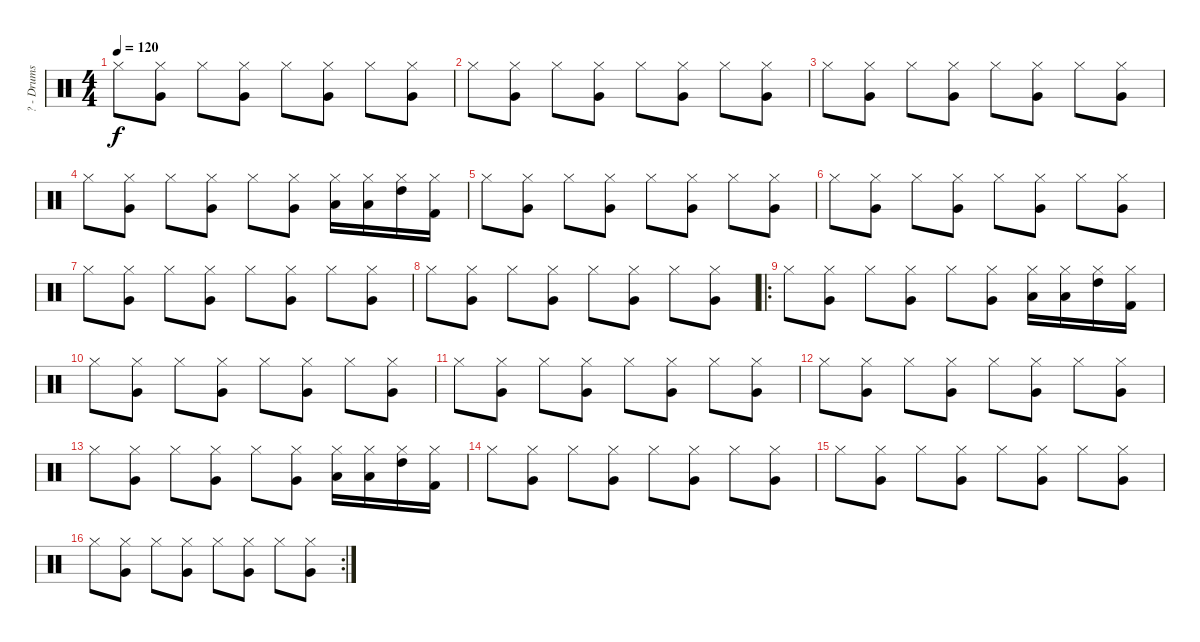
\track ("? - Drums" "? - Drums") {instrument percussion}
\staff {score}
\articulation defaults
\ts (4 4)
\tempo 120
\clef neutral
\ks c "Hi-Hat (closed)".8{dy f}
("Hi-Hat (closed)" "Very Low Tom (hit)").8 "Hi-Hat (closed)".8 ("Hi-Hat (closed)" "Very Low Tom (hit)").8 "Hi-Hat (closed)".8 ("Hi-Hat (closed)" "Very Low Tom (hit)").8 "Hi-Hat (closed)".8 ("Hi-Hat (closed)" "Very Low Tom (hit)").8 |
"Hi-Hat (closed)".8 ("Hi-Hat (closed)" "Very Low Tom (hit)").8 "Hi-Hat (closed)".8 ("Hi-Hat (closed)" "Very Low Tom (hit)").8 "Hi-Hat (closed)".8 ("Hi-Hat (closed)" "Very Low Tom (hit)").8 "Hi-Hat (closed)".8 ("Hi-Hat (closed)" "Very Low Tom (hit)").8 |
"Hi-Hat (closed)".8 ("Hi-Hat (closed)" "Very Low Tom (hit)").8 "Hi-Hat (closed)".8 ("Hi-Hat (closed)" "Very Low Tom (hit)").8 "Hi-Hat (closed)".8 ("Hi-Hat (closed)" "Very Low Tom (hit)").8 "Hi-Hat (closed)".8 ("Hi-Hat (closed)" "Very Low Tom (hit)").8 |
"Hi-Hat (closed)".8 ("Hi-Hat (closed)" "Very Low Tom (hit)").8 "Hi-Hat (closed)".8 ("Hi-Hat (closed)" "Very Low Tom (hit)").8 "Hi-Hat (closed)".8 ("Hi-Hat (closed)" "Very Low Tom (hit)").8 ("Hi-Hat (closed)" "Low Tom (hit)").16 ("Hi-Hat (closed)" "Low Tom (hit)").16 ("Hi-Hat (closed)" "High Tom (hit)").16 ("Hi-Hat (closed)" "Kick (hit) 2").16 |
"Hi-Hat (closed)".8 ("Hi-Hat (closed)" "Very Low Tom (hit)").8 "Hi-Hat (closed)".8 ("Hi-Hat (closed)" "Very Low Tom (hit)").8 "Hi-Hat (closed)".8 ("Hi-Hat (closed)" "Very Low Tom (hit)").8 "Hi-Hat (closed)".8 ("Hi-Hat (closed)" "Very Low Tom (hit)").8 |
"Hi-Hat (closed)".8 ("Hi-Hat (closed)" "Very Low Tom (hit)").8 "Hi-Hat (closed)".8 ("Hi-Hat (closed)" "Very Low Tom (hit)").8 "Hi-Hat (closed)".8 ("Hi-Hat (closed)" "Very Low Tom (hit)").8 "Hi-Hat (closed)".8 ("Hi-Hat (closed)" "Very Low Tom (hit)").8 |
"Hi-Hat (closed)".8 ("Hi-Hat (closed)" "Very Low Tom (hit)").8 "Hi-Hat (closed)".8 ("Hi-Hat (closed)" "Very Low Tom (hit)").8 "Hi-Hat (closed)".8 ("Hi-Hat (closed)" "Very Low Tom (hit)").8 "Hi-Hat (closed)".8 ("Hi-Hat (closed)" "Very Low Tom (hit)").8 |
"Hi-Hat (closed)".8 ("Hi-Hat (closed)" "Very Low Tom (hit)").8 "Hi-Hat (closed)".8 ("Hi-Hat (closed)" "Very Low Tom (hit)").8 "Hi-Hat (closed)".8 ("Hi-Hat (closed)" "Very Low Tom (hit)").8 "Hi-Hat (closed)".8 ("Hi-Hat (closed)" "Very Low Tom (hit)").8 |
\ro "Hi-Hat (closed)".8
("Hi-Hat (closed)" "Very Low Tom (hit)").8 "Hi-Hat (closed)".8 ("Hi-Hat (closed)" "Very Low Tom (hit)").8 "Hi-Hat (closed)".8 ("Hi-Hat (closed)" "Very Low Tom (hit)").8 ("Hi-Hat (closed)" "Low Tom (hit)").16 ("Hi-Hat (closed)" "Low Tom (hit)").16 ("Hi-Hat (closed)" "High Tom (hit)").16 ("Hi-Hat (closed)" "Kick (hit) 2").16 |
"Hi-Hat (closed)".8 ("Hi-Hat (closed)" "Very Low Tom (hit)").8 "Hi-Hat (closed)".8 ("Hi-Hat (closed)" "Very Low Tom (hit)").8 "Hi-Hat (closed)".8 ("Hi-Hat (closed)" "Very Low Tom (hit)").8 "Hi-Hat (closed)".8 ("Hi-Hat (closed)" "Very Low Tom (hit)").8 |
"Hi-Hat (closed)".8 ("Hi-Hat (closed)" "Very Low Tom (hit)").8 "Hi-Hat (closed)".8 ("Hi-Hat (closed)" "Very Low Tom (hit)").8 "Hi-Hat (closed)".8 ("Hi-Hat (closed)" "Very Low Tom (hit)").8 "Hi-Hat (closed)".8 ("Hi-Hat (closed)" "Very Low Tom (hit)").8 |
"Hi-Hat (closed)".8 ("Hi-Hat (closed)" "Very Low Tom (hit)").8 "Hi-Hat (closed)".8 ("Hi-Hat (closed)" "Very Low Tom (hit)").8 "Hi-Hat (closed)".8 ("Hi-Hat (closed)" "Very Low Tom (hit)").8 "Hi-Hat (closed)".8 ("Hi-Hat (closed)" "Very Low Tom (hit)").8 |
"Hi-Hat (closed)".8 ("Hi-Hat (closed)" "Very Low Tom (hit)").8 "Hi-Hat (closed)".8 ("Hi-Hat (closed)" "Very Low Tom (hit)").8 "Hi-Hat (closed)".8 ("Hi-Hat (closed)" "Very Low Tom (hit)").8 ("Hi-Hat (closed)" "Low Tom (hit)").16 ("Hi-Hat (closed)" "Low Tom (hit)").16 ("Hi-Hat (closed)" "High Tom (hit)").16 ("Hi-Hat (closed)" "Kick (hit) 2").16 |
"Hi-Hat (closed)".8 ("Hi-Hat (closed)" "Very Low Tom (hit)").8 "Hi-Hat (closed)".8 ("Hi-Hat (closed)" "Very Low Tom (hit)").8 "Hi-Hat (closed)".8 ("Hi-Hat (closed)" "Very Low Tom (hit)").8 "Hi-Hat (closed)".8 ("Hi-Hat (closed)" "Very Low Tom (hit)").8 |
"Hi-Hat (closed)".8 ("Hi-Hat (closed)" "Very Low Tom (hit)").8 "Hi-Hat (closed)".8 ("Hi-Hat (closed)" "Very Low Tom (hit)").8 "Hi-Hat (closed)".8 ("Hi-Hat (closed)" "Very Low Tom (hit)").8 "Hi-Hat (closed)".8 ("Hi-Hat (closed)" "Very Low Tom (hit)").8 |
\rc 2 "Hi-Hat (closed)".8
("Hi-Hat (closed)" "Very Low Tom (hit)").8 "Hi-Hat (closed)".8 ("Hi-Hat (closed)" "Very Low Tom (hit)").8 "Hi-Hat (closed)".8 ("Hi-Hat (closed)" "Very Low Tom (hit)").8 "Hi-Hat (closed)".8 ("Hi-Hat (closed)" "Very Low Tom (hit)").8
